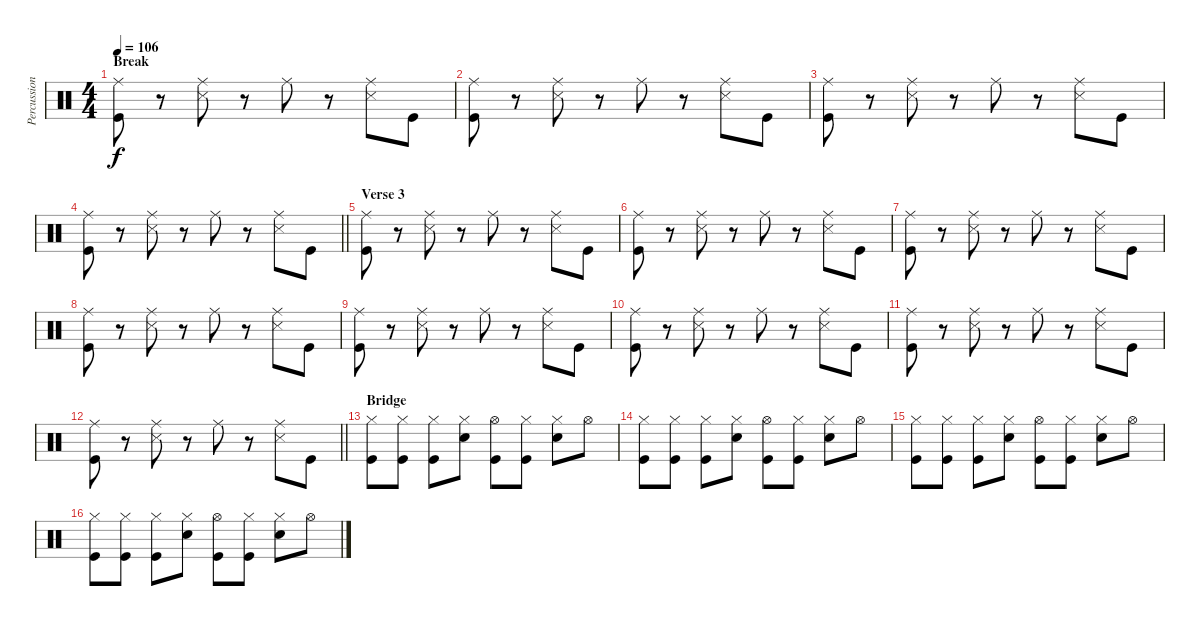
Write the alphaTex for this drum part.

\track ("Percussion" "Percussion") {instrument percussion}
\staff {score}
\articulation defaults
\ts (4 4)
\section ("" "Break")
\tempo 106
\clef neutral
\ks c
("Ride (middle)" "Kick (hit)").8{dy f} r.8 ("Ride (middle)" "Snare (side stick) 3").8 r.8 "Ride (middle)".8 r.8 ("Ride (middle)" "Snare (side stick) 3").8 "Kick (hit)".8 |
("Ride (middle)" "Kick (hit)").8 r.8 ("Ride (middle)" "Snare (side stick) 3").8 r.8 "Ride (middle)".8 r.8 ("Ride (middle)" "Snare (side stick) 3").8 "Kick (hit)".8 |
("Ride (middle)" "Kick (hit)").8 r.8 ("Ride (middle)" "Snare (side stick) 3").8 r.8 "Ride (middle)".8 r.8 ("Ride (middle)" "Snare (side stick) 3").8 "Kick (hit)".8 |
\barLineRight lightlight
("Ride (middle)" "Kick (hit)").8 r.8 ("Ride (middle)" "Snare (side stick) 3").8 r.8 "Ride (middle)".8 r.8 ("Ride (middle)" "Snare (side stick) 3").8 "Kick (hit)".8 |
\section ("" "Verse 3")
("Ride (middle)" "Kick (hit)").8 r.8 ("Ride (middle)" "Snare (side stick) 3").8 r.8 "Ride (middle)".8 r.8 ("Ride (middle)" "Snare (side stick) 3").8 "Kick (hit)".8 |
("Ride (middle)" "Kick (hit)").8 r.8 ("Ride (middle)" "Snare (side stick) 3").8 r.8 "Ride (middle)".8 r.8 ("Ride (middle)" "Snare (side stick) 3").8 "Kick (hit)".8 |
("Ride (middle)" "Kick (hit)").8 r.8 ("Ride (middle)" "Snare (side stick) 3").8 r.8 "Ride (middle)".8 r.8 ("Ride (middle)" "Snare (side stick) 3").8 "Kick (hit)".8 |
("Ride (middle)" "Kick (hit)").8 r.8 ("Ride (middle)" "Snare (side stick) 3").8 r.8 "Ride (middle)".8 r.8 ("Ride (middle)" "Snare (side stick) 3").8 "Kick (hit)".8 |
("Ride (middle)" "Kick (hit)").8 r.8 ("Ride (middle)" "Snare (side stick) 3").8 r.8 "Ride (middle)".8 r.8 ("Ride (middle)" "Snare (side stick) 3").8 "Kick (hit)".8 |
("Ride (middle)" "Kick (hit)").8 r.8 ("Ride (middle)" "Snare (side stick) 3").8 r.8 "Ride (middle)".8 r.8 ("Ride (middle)" "Snare (side stick) 3").8 "Kick (hit)".8 |
("Ride (middle)" "Kick (hit)").8 r.8 ("Ride (middle)" "Snare (side stick) 3").8 r.8 "Ride (middle)".8 r.8 ("Ride (middle)" "Snare (side stick) 3").8 "Kick (hit)".8 |
\barLineRight lightlight
("Ride (middle)" "Kick (hit)").8 r.8 ("Ride (middle)" "Snare (side stick) 3").8 r.8 "Ride (middle)".8 r.8 ("Ride (middle)" "Snare (side stick) 3").8 "Kick (hit)".8 |
\section ("" "Bridge")
("Hi-Hat (closed)" "Kick (hit)").8 ("Hi-Hat (closed)" "Kick (hit)").8 ("Hi-Hat (closed)" "Kick (hit)").8 ("Hi-Hat (closed)" "Snare (hit) 2").8 ("Hi-Hat (open)" "Kick (hit)").8 ("Hi-Hat (closed)" "Kick (hit)").8 ("Hi-Hat (closed)" "Snare (hit) 2").8 "Hi-Hat (open)".8 |
("Hi-Hat (closed)" "Kick (hit)").8 ("Hi-Hat (closed)" "Kick (hit)").8 ("Hi-Hat (closed)" "Kick (hit)").8 ("Hi-Hat (closed)" "Snare (hit) 2").8 ("Hi-Hat (open)" "Kick (hit)").8 ("Hi-Hat (closed)" "Kick (hit)").8 ("Hi-Hat (closed)" "Snare (hit) 2").8 "Hi-Hat (open)".8 |
("Hi-Hat (closed)" "Kick (hit)").8 ("Hi-Hat (closed)" "Kick (hit)").8 ("Hi-Hat (closed)" "Kick (hit)").8 ("Hi-Hat (closed)" "Snare (hit) 2").8 ("Hi-Hat (open)" "Kick (hit)").8 ("Hi-Hat (closed)" "Kick (hit)").8 ("Hi-Hat (closed)" "Snare (hit) 2").8 "Hi-Hat (open)".8 |
("Hi-Hat (closed)" "Kick (hit)").8 ("Hi-Hat (closed)" "Kick (hit)").8 ("Hi-Hat (closed)" "Kick (hit)").8 ("Hi-Hat (closed)" "Snare (hit) 2").8 ("Hi-Hat (open)" "Kick (hit)").8 ("Hi-Hat (closed)" "Kick (hit)").8 ("Hi-Hat (closed)" "Snare (hit) 2").8 "Hi-Hat (open)".8
